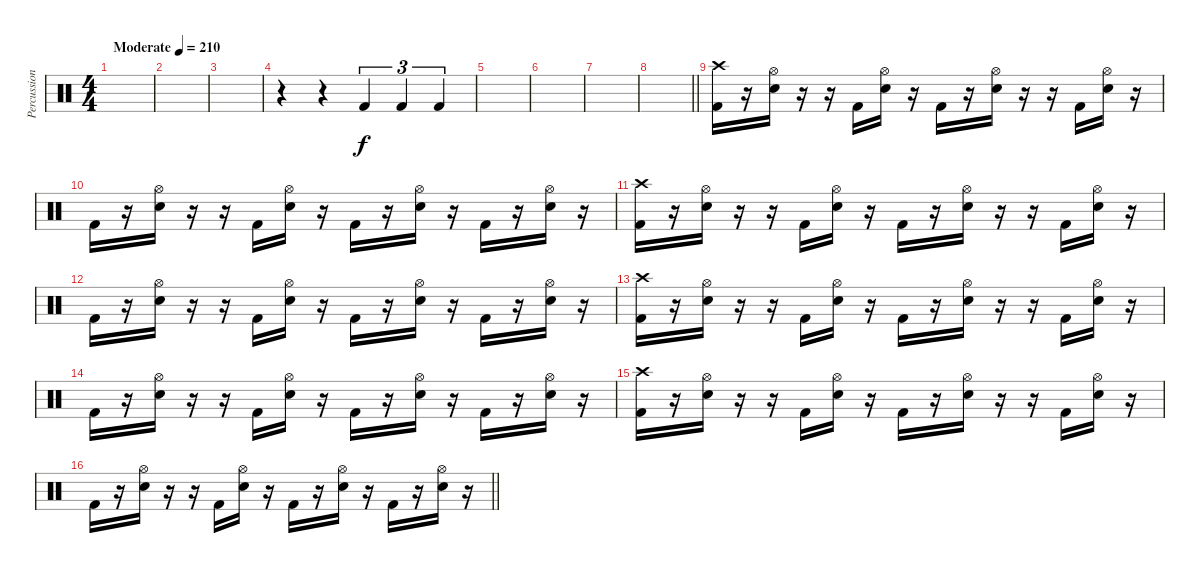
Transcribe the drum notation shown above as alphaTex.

\track ("Percussions" "Percussion") {instrument percussion}
\staff {score}
\articulation defaults
\ts (4 4)
\tempo (210 "Moderate")
\clef neutral
\ks c
|
|
|
r.4 r.4 "Kick (hit) 2".4{tu (3 2)} "Kick (hit) 2".4{tu (3 2)} "Kick (hit) 2".4{tu (3 2)} |
|
|
|
\barLineRight lightlight
|
\section ("" "")
("Crash high (hit)" "Kick (hit) 2").16 r.16 ("Hi-Hat (open)" "Snare (hit) 2").16 r.16 r.16 "Kick (hit) 2".16 ("Hi-Hat (open)" "Snare (hit) 2").16 r.16 "Kick (hit) 2".16 r.16 ("Hi-Hat (open)" "Snare (hit) 2").16 r.16 r.16 "Kick (hit) 2".16 ("Hi-Hat (open)" "Snare (hit) 2").16 r.16 |
"Kick (hit) 2".16 r.16 ("Hi-Hat (open)" "Snare (hit) 2").16 r.16 r.16 "Kick (hit) 2".16 ("Hi-Hat (open)" "Snare (hit) 2").16 r.16 "Kick (hit) 2".16 r.16 ("Hi-Hat (open)" "Snare (hit) 2").16 r.16 "Kick (hit) 2".16 r.16 ("Hi-Hat (open)" "Snare (hit) 2").16 r.16 |
("Crash high (hit)" "Kick (hit) 2").16 r.16 ("Hi-Hat (open)" "Snare (hit) 2").16 r.16 r.16 "Kick (hit) 2".16 ("Hi-Hat (open)" "Snare (hit) 2").16 r.16 "Kick (hit) 2".16 r.16 ("Hi-Hat (open)" "Snare (hit) 2").16 r.16 r.16 "Kick (hit) 2".16 ("Hi-Hat (open)" "Snare (hit) 2").16 r.16 |
"Kick (hit) 2".16 r.16 ("Hi-Hat (open)" "Snare (hit) 2").16 r.16 r.16 "Kick (hit) 2".16 ("Hi-Hat (open)" "Snare (hit) 2").16 r.16 "Kick (hit) 2".16 r.16 ("Hi-Hat (open)" "Snare (hit) 2").16 r.16 "Kick (hit) 2".16 r.16 ("Hi-Hat (open)" "Snare (hit) 2").16 r.16 |
("Crash high (hit)" "Kick (hit) 2").16 r.16 ("Hi-Hat (open)" "Snare (hit) 2").16 r.16 r.16 "Kick (hit) 2".16 ("Hi-Hat (open)" "Snare (hit) 2").16 r.16 "Kick (hit) 2".16 r.16 ("Hi-Hat (open)" "Snare (hit) 2").16 r.16 r.16 "Kick (hit) 2".16 ("Hi-Hat (open)" "Snare (hit) 2").16 r.16 |
"Kick (hit) 2".16 r.16 ("Hi-Hat (open)" "Snare (hit) 2").16 r.16 r.16 "Kick (hit) 2".16 ("Hi-Hat (open)" "Snare (hit) 2").16 r.16 "Kick (hit) 2".16 r.16 ("Hi-Hat (open)" "Snare (hit) 2").16 r.16 "Kick (hit) 2".16 r.16 ("Hi-Hat (open)" "Snare (hit) 2").16 r.16 |
("Crash high (hit)" "Kick (hit) 2").16 r.16 ("Hi-Hat (open)" "Snare (hit) 2").16 r.16 r.16 "Kick (hit) 2".16 ("Hi-Hat (open)" "Snare (hit) 2").16 r.16 "Kick (hit) 2".16 r.16 ("Hi-Hat (open)" "Snare (hit) 2").16 r.16 r.16 "Kick (hit) 2".16 ("Hi-Hat (open)" "Snare (hit) 2").16 r.16 |
\barLineRight lightlight "Kick (hit) 2".16
r.16 ("Hi-Hat (open)" "Snare (hit) 2").16 r.16 r.16 "Kick (hit) 2".16 ("Hi-Hat (open)" "Snare (hit) 2").16 r.16 "Kick (hit) 2".16 r.16 ("Hi-Hat (open)" "Snare (hit) 2").16 r.16 "Kick (hit) 2".16 r.16 ("Hi-Hat (open)" "Snare (hit) 2").16 r.16
